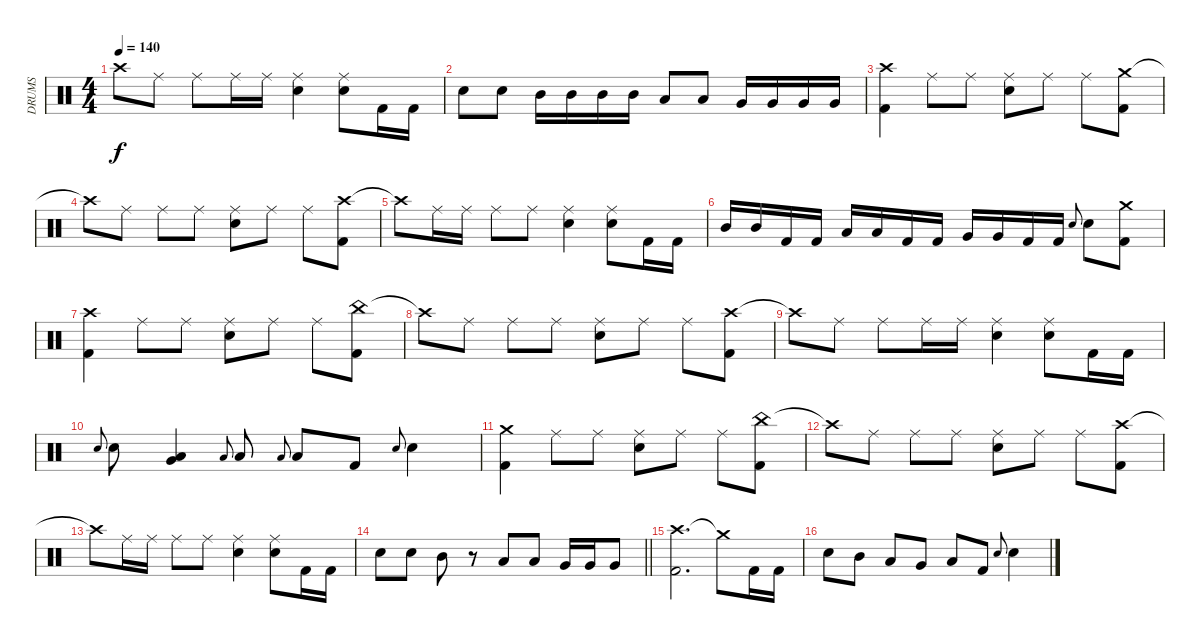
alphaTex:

\track ("DRUMS" "DRUMS") {instrument percussion}
\staff {score}
\articulation defaults
\ts (4 4)
\tempo 140
\clef neutral
\ks c "Crash high (hit)"{t}.8{dy f} "Ride (middle)".8 "Ride (middle)".8 "Ride (middle)".16 "Ride (middle)".16
("Ride (middle)" "Snare (hit) 2").4 ("Ride (middle)" "Snare (hit) 2").8 "Kick (hit) 2".16 "Kick (hit) 2".16 |
"Snare (hit) 2".8 "Snare (hit) 2".8 "Mid Tom (hit)".16 "Mid Tom (hit)".16 "Mid Tom (hit)".16 "Mid Tom (hit)".16 "Low Tom (hit)".8 "Low Tom (hit)".8 "Very Low Tom (hit)".16 "Very Low Tom (hit)".16 "Very Low Tom (hit)".16 "Very Low Tom (hit)".16 |
("Crash high (hit)" "Kick (hit) 2").4 "Ride (middle)".8 "Ride (middle)".8 ("Ride (middle)" "Snare (hit) 2").8 "Ride (middle)".8 "Ride (middle)".8 ("Crash medium (hit)" "Kick (hit) 2").8 |
"Crash high (hit)"{t}.8 "Ride (middle)".8 "Ride (middle)".8 "Ride (middle)".8 ("Ride (middle)" "Snare (hit) 2").8 "Ride (middle)".8 "Ride (middle)".8 ("Crash high (hit)" "Kick (hit) 2").8 |
"Crash high (hit)"{t}.8 "Ride (middle)".16 "Ride (middle)".16 "Ride (middle)".8 "Ride (middle)".8 ("Ride (middle)" "Snare (hit) 2").4 ("Ride (middle)" "Snare (hit) 2").8 "Kick (hit) 2".16 "Kick (hit) 2".16 |
"Mid Tom (hit)".16 "Mid Tom (hit)".16 "Kick (hit) 2".16 "Kick (hit) 2".16 "Low Tom (hit)".16 "Low Tom (hit)".16 "Kick (hit) 2".16 "Kick (hit) 2".16 "Very Low Tom (hit)".16 "Very Low Tom (hit)".16 "Kick (hit) 2".16 "Kick (hit) 2".16 "Snare (hit) 2".8{gr onbeat} "Snare (hit) 2".8 ("Crash medium (hit)" "Kick (hit) 2").8 |
("Crash high (hit)" "Kick (hit) 2").4 "Ride (middle)".8 "Ride (middle)".8 ("Ride (middle)" "Snare (hit) 2").8 "Ride (middle)".8 "Ride (middle)".8 ("China (hit)" "Kick (hit) 2").8 |
"Crash high (hit)"{t}.8 "Ride (middle)".8 "Ride (middle)".8 "Ride (middle)".8 ("Ride (middle)" "Snare (hit) 2").8 "Ride (middle)".8 "Ride (middle)".8 ("Crash high (hit)" "Kick (hit) 2").8 |
"Crash high (hit)"{t}.8 "Ride (middle)".8 "Ride (middle)".8 "Ride (middle)".16 "Ride (middle)".16 ("Ride (middle)" "Snare (hit) 2").4 ("Ride (middle)" "Snare (hit) 2").8 "Kick (hit) 2".16 "Kick (hit) 2".16 |
"Snare (hit) 2".8{gr onbeat} "Snare (hit) 2".8 ("Low Floor Tom (hit)" "Very Low Tom (hit)").4 "Low Floor Tom (hit)".8{gr onbeat} "Low Floor Tom (hit)".8 "Low Floor Tom (hit)".8{gr onbeat} "Low Floor Tom (hit)".8 "Kick (hit) 2".8 "Snare (hit) 2".8{gr onbeat} "Snare (hit) 2".4 |
("Crash medium (hit)" "Kick (hit) 2").4 "Ride (middle)".8 "Ride (middle)".8 ("Ride (middle)" "Snare (hit) 2").8 "Ride (middle)".8 "Ride (middle)".8 ("China (hit)" "Kick (hit) 2").8 |
"Crash high (hit)"{t}.8 "Ride (middle)".8 "Ride (middle)".8 "Ride (middle)".8 ("Ride (middle)" "Snare (hit) 2").8 "Ride (middle)".8 "Ride (middle)".8 ("Crash high (hit)" "Kick (hit) 2").8 |
"Crash high (hit)"{t}.8 "Ride (middle)".16 "Ride (middle)".16 "Ride (middle)".8 "Ride (middle)".8 ("Ride (middle)" "Snare (hit) 2").4 ("Ride (middle)" "Snare (hit) 2").8 "Kick (hit) 2".16 "Kick (hit) 2".16 |
\barLineRight lightlight "Snare (hit) 2".8 "Snare (hit) 2".8 "Mid Tom (hit)".8
r.8 "Low Tom (hit)".8 "Low Tom (hit)".8 "Very Low Tom (hit)".16 "Very Low Tom (hit)".16 "Very Low Tom (hit)".8 |
("Crash high (hit)" "Kick (hit) 2").2{d} "Crash medium (hit)"{t}.8 "Kick (hit) 2".16 "Kick (hit) 2".16 |
"Snare (hit) 2".8 "Mid Tom (hit)".8 "Low Tom (hit)".8 "Very Low Tom (hit)".8 "Low Floor Tom (hit)".8 "Kick (hit) 2".8 "Snare (hit) 2".8{gr onbeat} "Snare (hit) 2".4
